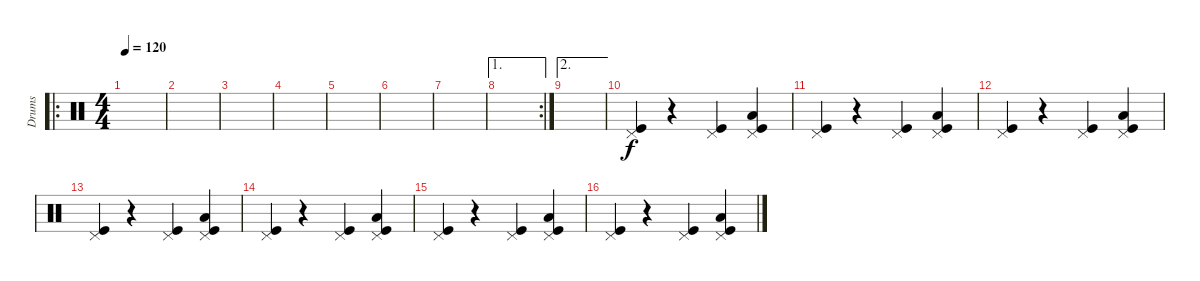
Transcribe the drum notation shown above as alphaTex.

\track ("Drums" "Drums") {instrument percussion}
\staff {score}
\articulation defaults
\ro
\ts (4 4)
\tempo 120
\clef neutral
\ks c
|
|
|
|
|
|
|
\ae 1
\rc 2
|
\ae 2
|
("Pedal Hi-Hat (hit)" "Kick (hit)").4 r.4 ("Pedal Hi-Hat (hit)" "Kick (hit)").4 ("Pedal Hi-Hat (hit)" "Low Tom (hit)" "Kick (hit)").4 |
("Pedal Hi-Hat (hit)" "Kick (hit)").4 r.4 ("Pedal Hi-Hat (hit)" "Kick (hit)").4 ("Pedal Hi-Hat (hit)" "Low Tom (hit)" "Kick (hit)").4 |
("Pedal Hi-Hat (hit)" "Kick (hit)").4 r.4 ("Pedal Hi-Hat (hit)" "Kick (hit)").4 ("Pedal Hi-Hat (hit)" "Low Tom (hit)" "Kick (hit)").4 |
("Pedal Hi-Hat (hit)" "Kick (hit)").4 r.4 ("Pedal Hi-Hat (hit)" "Kick (hit)").4 ("Pedal Hi-Hat (hit)" "Low Tom (hit)" "Kick (hit)").4 |
("Pedal Hi-Hat (hit)" "Kick (hit)").4 r.4 ("Pedal Hi-Hat (hit)" "Kick (hit)").4 ("Pedal Hi-Hat (hit)" "Low Tom (hit)" "Kick (hit)").4 |
("Pedal Hi-Hat (hit)" "Kick (hit)").4 r.4 ("Pedal Hi-Hat (hit)" "Kick (hit)").4 ("Pedal Hi-Hat (hit)" "Low Tom (hit)" "Kick (hit)").4 |
("Pedal Hi-Hat (hit)" "Kick (hit)").4 r.4 ("Pedal Hi-Hat (hit)" "Kick (hit)").4 ("Pedal Hi-Hat (hit)" "Low Tom (hit)" "Kick (hit)").4
